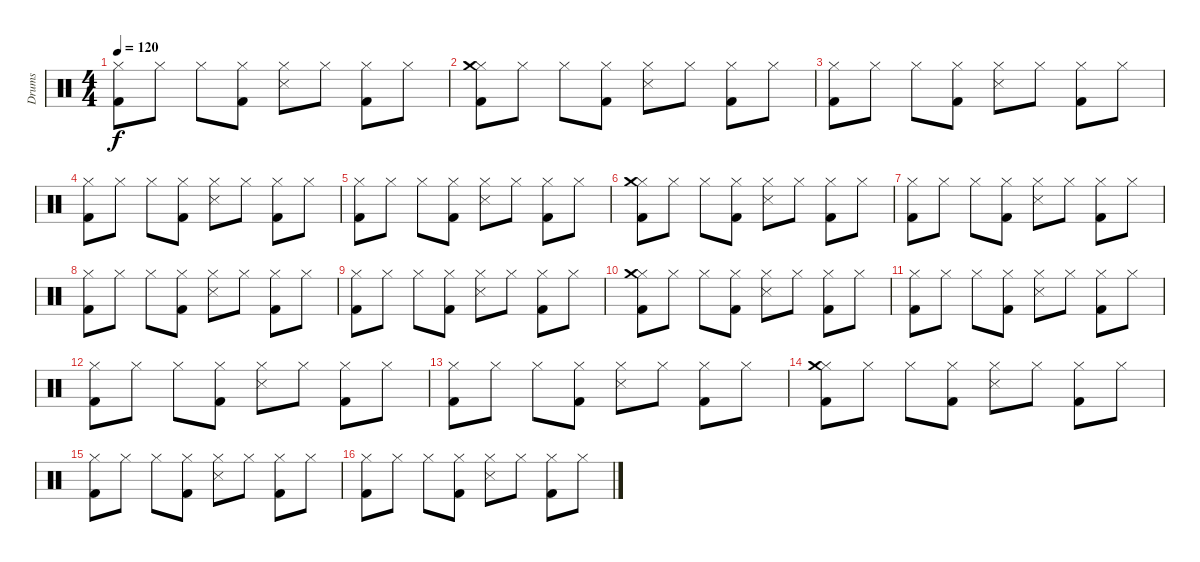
\track ("Drums" "Drums") {instrument percussion}
\staff {score}
\articulation defaults
\ts (4 4)
\tempo 120
\clef neutral
\ks c
("Hi-Hat (closed)" "Kick (hit) 2").8{dy f} "Hi-Hat (closed)".8 "Hi-Hat (closed)".8 ("Hi-Hat (closed)" "Kick (hit) 2").8 ("Hi-Hat (closed)" "Snare (side stick) 3").8 "Hi-Hat (closed)".8 ("Hi-Hat (closed)" "Kick (hit) 2").8 "Hi-Hat (closed)".8 |
("Hi-Hat (closed)" "Kick (hit) 2" "Crash medium (hit)").8 "Hi-Hat (closed)".8 "Hi-Hat (closed)".8 ("Hi-Hat (closed)" "Kick (hit) 2").8 ("Hi-Hat (closed)" "Snare (side stick) 3").8 "Hi-Hat (closed)".8 ("Hi-Hat (closed)" "Kick (hit) 2").8 "Hi-Hat (closed)".8 |
("Hi-Hat (closed)" "Kick (hit) 2").8 "Hi-Hat (closed)".8 "Hi-Hat (closed)".8 ("Hi-Hat (closed)" "Kick (hit) 2").8 ("Hi-Hat (closed)" "Snare (side stick) 3").8 "Hi-Hat (closed)".8 ("Hi-Hat (closed)" "Kick (hit) 2").8 "Hi-Hat (closed)".8 |
("Hi-Hat (closed)" "Kick (hit) 2").8 "Hi-Hat (closed)".8 "Hi-Hat (closed)".8 ("Hi-Hat (closed)" "Kick (hit) 2").8 ("Hi-Hat (closed)" "Snare (side stick) 3").8 "Hi-Hat (closed)".8 ("Hi-Hat (closed)" "Kick (hit) 2").8 "Hi-Hat (closed)".8 |
("Hi-Hat (closed)" "Kick (hit) 2").8 "Hi-Hat (closed)".8 "Hi-Hat (closed)".8 ("Hi-Hat (closed)" "Kick (hit) 2").8 ("Hi-Hat (closed)" "Snare (side stick) 3").8 "Hi-Hat (closed)".8 ("Hi-Hat (closed)" "Kick (hit) 2").8 "Hi-Hat (closed)".8 |
("Hi-Hat (closed)" "Kick (hit) 2" "Crash medium (hit)").8 "Hi-Hat (closed)".8 "Hi-Hat (closed)".8 ("Hi-Hat (closed)" "Kick (hit) 2").8 ("Hi-Hat (closed)" "Snare (side stick) 3").8 "Hi-Hat (closed)".8 ("Hi-Hat (closed)" "Kick (hit) 2").8 "Hi-Hat (closed)".8 |
("Hi-Hat (closed)" "Kick (hit) 2").8 "Hi-Hat (closed)".8 "Hi-Hat (closed)".8 ("Hi-Hat (closed)" "Kick (hit) 2").8 ("Hi-Hat (closed)" "Snare (side stick) 3").8 "Hi-Hat (closed)".8 ("Hi-Hat (closed)" "Kick (hit) 2").8 "Hi-Hat (closed)".8 |
("Hi-Hat (closed)" "Kick (hit) 2").8 "Hi-Hat (closed)".8 "Hi-Hat (closed)".8 ("Hi-Hat (closed)" "Kick (hit) 2").8 ("Hi-Hat (closed)" "Snare (side stick) 3").8 "Hi-Hat (closed)".8 ("Hi-Hat (closed)" "Kick (hit) 2").8 "Hi-Hat (closed)".8 |
("Hi-Hat (closed)" "Kick (hit) 2").8 "Hi-Hat (closed)".8 "Hi-Hat (closed)".8 ("Hi-Hat (closed)" "Kick (hit) 2").8 ("Hi-Hat (closed)" "Snare (side stick) 3").8 "Hi-Hat (closed)".8 ("Hi-Hat (closed)" "Kick (hit) 2").8 "Hi-Hat (closed)".8 |
("Hi-Hat (closed)" "Kick (hit) 2" "Crash medium (hit)").8 "Hi-Hat (closed)".8 "Hi-Hat (closed)".8 ("Hi-Hat (closed)" "Kick (hit) 2").8 ("Hi-Hat (closed)" "Snare (side stick) 3").8 "Hi-Hat (closed)".8 ("Hi-Hat (closed)" "Kick (hit) 2").8 "Hi-Hat (closed)".8 |
("Hi-Hat (closed)" "Kick (hit) 2").8 "Hi-Hat (closed)".8 "Hi-Hat (closed)".8 ("Hi-Hat (closed)" "Kick (hit) 2").8 ("Hi-Hat (closed)" "Snare (side stick) 3").8 "Hi-Hat (closed)".8 ("Hi-Hat (closed)" "Kick (hit) 2").8 "Hi-Hat (closed)".8 |
("Hi-Hat (closed)" "Kick (hit) 2").8 "Hi-Hat (closed)".8 "Hi-Hat (closed)".8 ("Hi-Hat (closed)" "Kick (hit) 2").8 ("Hi-Hat (closed)" "Snare (side stick) 3").8 "Hi-Hat (closed)".8 ("Hi-Hat (closed)" "Kick (hit) 2").8 "Hi-Hat (closed)".8 |
("Hi-Hat (closed)" "Kick (hit) 2").8 "Hi-Hat (closed)".8 "Hi-Hat (closed)".8 ("Hi-Hat (closed)" "Kick (hit) 2").8 ("Hi-Hat (closed)" "Snare (side stick) 3").8 "Hi-Hat (closed)".8 ("Hi-Hat (closed)" "Kick (hit) 2").8 "Hi-Hat (closed)".8 |
("Hi-Hat (closed)" "Kick (hit) 2" "Crash medium (hit)").8 "Hi-Hat (closed)".8 "Hi-Hat (closed)".8 ("Hi-Hat (closed)" "Kick (hit) 2").8 ("Hi-Hat (closed)" "Snare (side stick) 3").8 "Hi-Hat (closed)".8 ("Hi-Hat (closed)" "Kick (hit) 2").8 "Hi-Hat (closed)".8 |
("Hi-Hat (closed)" "Kick (hit) 2").8 "Hi-Hat (closed)".8 "Hi-Hat (closed)".8 ("Hi-Hat (closed)" "Kick (hit) 2").8 ("Hi-Hat (closed)" "Snare (side stick) 3").8 "Hi-Hat (closed)".8 ("Hi-Hat (closed)" "Kick (hit) 2").8 "Hi-Hat (closed)".8 |
("Hi-Hat (closed)" "Kick (hit) 2").8 "Hi-Hat (closed)".8 "Hi-Hat (closed)".8 ("Hi-Hat (closed)" "Kick (hit) 2").8 ("Hi-Hat (closed)" "Snare (side stick) 3").8 "Hi-Hat (closed)".8 ("Hi-Hat (closed)" "Kick (hit) 2").8 "Hi-Hat (closed)".8
